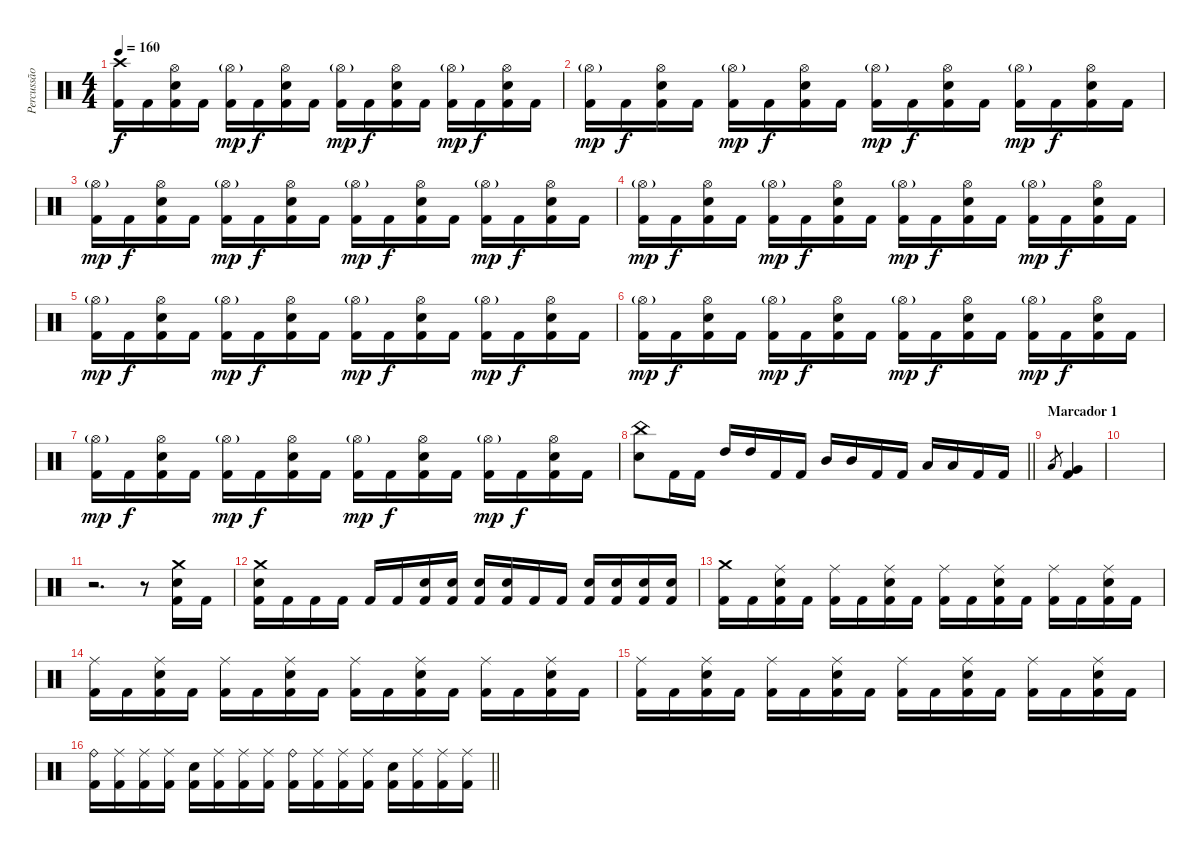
\track ("Percussão" "Percussão") {instrument percussion}
\staff {score}
\articulation defaults
\ts (4 4)
\tempo 160
\clef neutral
\ks c
("Crash high (hit)" "Kick (hit) 2").16{dy f} "Kick (hit) 2".16 ("Hi-Hat (open)" "Electric Snare (hit)" "Kick (hit) 2").16 "Kick (hit) 2".16 ("Hi-Hat (open)"{g} "Kick (hit) 2").16{dy mp} "Kick (hit) 2".16{dy f} ("Hi-Hat (open)" "Electric Snare (hit)" "Kick (hit) 2").16 "Kick (hit) 2".16 ("Hi-Hat (open)"{g} "Kick (hit) 2").16{dy mp} "Kick (hit) 2".16{dy f} ("Hi-Hat (open)" "Electric Snare (hit)" "Kick (hit) 2").16 "Kick (hit) 2".16 ("Hi-Hat (open)"{g} "Kick (hit) 2").16{dy mp} "Kick (hit) 2".16{dy f} ("Hi-Hat (open)" "Electric Snare (hit)" "Kick (hit) 2").16 "Kick (hit) 2".16 |
("Hi-Hat (open)"{g} "Kick (hit) 2").16{dy mp} "Kick (hit) 2".16{dy f} ("Hi-Hat (open)" "Electric Snare (hit)" "Kick (hit) 2").16 "Kick (hit) 2".16 ("Hi-Hat (open)"{g} "Kick (hit) 2").16{dy mp} "Kick (hit) 2".16{dy f} ("Hi-Hat (open)" "Electric Snare (hit)" "Kick (hit) 2").16 "Kick (hit) 2".16 ("Hi-Hat (open)"{g} "Kick (hit) 2").16{dy mp} "Kick (hit) 2".16{dy f} ("Hi-Hat (open)" "Electric Snare (hit)" "Kick (hit) 2").16 "Kick (hit) 2".16 ("Hi-Hat (open)"{g} "Kick (hit) 2").16{dy mp} "Kick (hit) 2".16{dy f} ("Hi-Hat (open)" "Electric Snare (hit)" "Kick (hit) 2").16 "Kick (hit) 2".16 |
("Hi-Hat (open)"{g} "Kick (hit) 2").16{dy mp} "Kick (hit) 2".16{dy f} ("Hi-Hat (open)" "Electric Snare (hit)" "Kick (hit) 2").16 "Kick (hit) 2".16 ("Hi-Hat (open)"{g} "Kick (hit) 2").16{dy mp} "Kick (hit) 2".16{dy f} ("Hi-Hat (open)" "Electric Snare (hit)" "Kick (hit) 2").16 "Kick (hit) 2".16 ("Hi-Hat (open)"{g} "Kick (hit) 2").16{dy mp} "Kick (hit) 2".16{dy f} ("Hi-Hat (open)" "Electric Snare (hit)" "Kick (hit) 2").16 "Kick (hit) 2".16 ("Hi-Hat (open)"{g} "Kick (hit) 2").16{dy mp} "Kick (hit) 2".16{dy f} ("Hi-Hat (open)" "Electric Snare (hit)" "Kick (hit) 2").16 "Kick (hit) 2".16 |
("Hi-Hat (open)"{g} "Kick (hit) 2").16{dy mp} "Kick (hit) 2".16{dy f} ("Hi-Hat (open)" "Electric Snare (hit)" "Kick (hit) 2").16 "Kick (hit) 2".16 ("Hi-Hat (open)"{g} "Kick (hit) 2").16{dy mp} "Kick (hit) 2".16{dy f} ("Hi-Hat (open)" "Electric Snare (hit)" "Kick (hit) 2").16 "Kick (hit) 2".16 ("Hi-Hat (open)"{g} "Kick (hit) 2").16{dy mp} "Kick (hit) 2".16{dy f} ("Hi-Hat (open)" "Electric Snare (hit)" "Kick (hit) 2").16 "Kick (hit) 2".16 ("Hi-Hat (open)"{g} "Kick (hit) 2").16{dy mp} "Kick (hit) 2".16{dy f} ("Hi-Hat (open)" "Electric Snare (hit)" "Kick (hit) 2").16 "Kick (hit) 2".16 |
("Hi-Hat (open)"{g} "Kick (hit) 2").16{dy mp} "Kick (hit) 2".16{dy f} ("Hi-Hat (open)" "Electric Snare (hit)" "Kick (hit) 2").16 "Kick (hit) 2".16 ("Hi-Hat (open)"{g} "Kick (hit) 2").16{dy mp} "Kick (hit) 2".16{dy f} ("Hi-Hat (open)" "Electric Snare (hit)" "Kick (hit) 2").16 "Kick (hit) 2".16 ("Hi-Hat (open)"{g} "Kick (hit) 2").16{dy mp} "Kick (hit) 2".16{dy f} ("Hi-Hat (open)" "Electric Snare (hit)" "Kick (hit) 2").16 "Kick (hit) 2".16 ("Hi-Hat (open)"{g} "Kick (hit) 2").16{dy mp} "Kick (hit) 2".16{dy f} ("Hi-Hat (open)" "Electric Snare (hit)" "Kick (hit) 2").16 "Kick (hit) 2".16 |
("Hi-Hat (open)"{g} "Kick (hit) 2").16{dy mp} "Kick (hit) 2".16{dy f} ("Hi-Hat (open)" "Electric Snare (hit)" "Kick (hit) 2").16 "Kick (hit) 2".16 ("Hi-Hat (open)"{g} "Kick (hit) 2").16{dy mp} "Kick (hit) 2".16{dy f} ("Hi-Hat (open)" "Electric Snare (hit)" "Kick (hit) 2").16 "Kick (hit) 2".16 ("Hi-Hat (open)"{g} "Kick (hit) 2").16{dy mp} "Kick (hit) 2".16{dy f} ("Hi-Hat (open)" "Electric Snare (hit)" "Kick (hit) 2").16 "Kick (hit) 2".16 ("Hi-Hat (open)"{g} "Kick (hit) 2").16{dy mp} "Kick (hit) 2".16{dy f} ("Hi-Hat (open)" "Electric Snare (hit)" "Kick (hit) 2").16 "Kick (hit) 2".16 |
("Hi-Hat (open)"{g} "Kick (hit) 2").16{dy mp} "Kick (hit) 2".16{dy f} ("Hi-Hat (open)" "Electric Snare (hit)" "Kick (hit) 2").16 "Kick (hit) 2".16 ("Hi-Hat (open)"{g} "Kick (hit) 2").16{dy mp} "Kick (hit) 2".16{dy f} ("Hi-Hat (open)" "Electric Snare (hit)" "Kick (hit) 2").16 "Kick (hit) 2".16 ("Hi-Hat (open)"{g} "Kick (hit) 2").16{dy mp} "Kick (hit) 2".16{dy f} ("Hi-Hat (open)" "Electric Snare (hit)" "Kick (hit) 2").16 "Kick (hit) 2".16 ("Hi-Hat (open)"{g} "Kick (hit) 2").16{dy mp} "Kick (hit) 2".16{dy f} ("Hi-Hat (open)" "Electric Snare (hit)" "Kick (hit) 2").16 "Kick (hit) 2".16 |
\barLineRight lightlight
("China (hit)" "Electric Snare (hit)").8 "Kick (hit) 2".16 "Kick (hit) 2".16 "High Tom (hit)".16 "High Tom (hit)".16 "Kick (hit) 2".16 "Kick (hit) 2".16 "Mid Tom (hit)".16 "Mid Tom (hit)".16 "Kick (hit) 2".16 "Kick (hit) 2".16 "Low Tom (hit)".16 "Low Tom (hit)".16 "Kick (hit) 2".16 "Kick (hit) 2".16 |
\section ("" "Marcador 1")
"Low Floor Tom (hit)".8{gr} ("Very Low Tom (hit)" "Kick (hit) 2").4 |
|
r.2{d} r.8 ("Crash medium (hit)" "Electric Snare (hit)" "Kick (hit) 2").16 "Kick (hit) 2".16 |
("Crash medium (hit)" "Electric Snare (hit)" "Kick (hit) 2").16 "Kick (hit) 2".16 "Kick (hit) 2".16 "Kick (hit) 2".16 "Kick (hit) 2".16 "Kick (hit) 2".16 ("Electric Snare (hit)" "Kick (hit) 2").16 ("Electric Snare (hit)" "Kick (hit) 2").16 ("Electric Snare (hit)" "Kick (hit) 2").16 ("Electric Snare (hit)" "Kick (hit) 2").16 "Kick (hit) 2".16 "Kick (hit) 2".16 ("Electric Snare (hit)" "Kick (hit) 2").16 ("Electric Snare (hit)" "Kick (hit) 2").16 ("Electric Snare (hit)" "Kick (hit) 2").16 ("Electric Snare (hit)" "Kick (hit) 2").16 |
("Crash medium (hit)" "Kick (hit) 2").16 "Kick (hit) 2".16 ("Ride (middle)" "Electric Snare (hit)" "Kick (hit) 2").16 "Kick (hit) 2".16 ("Ride (middle)" "Kick (hit) 2").16 "Kick (hit) 2".16 ("Ride (middle)" "Electric Snare (hit)" "Kick (hit) 2").16 "Kick (hit) 2".16 ("Ride (middle)" "Kick (hit) 2").16 "Kick (hit) 2".16 ("Ride (middle)" "Electric Snare (hit)" "Kick (hit) 2").16 "Kick (hit) 2".16 ("Ride (middle)" "Kick (hit) 2").16 "Kick (hit) 2".16 ("Ride (middle)" "Electric Snare (hit)" "Kick (hit) 2").16 "Kick (hit) 2".16 |
("Ride (middle)" "Kick (hit) 2").16 "Kick (hit) 2".16 ("Ride (middle)" "Electric Snare (hit)" "Kick (hit) 2").16 "Kick (hit) 2".16 ("Ride (middle)" "Kick (hit) 2").16 "Kick (hit) 2".16 ("Ride (middle)" "Electric Snare (hit)" "Kick (hit) 2").16 "Kick (hit) 2".16 ("Ride (middle)" "Kick (hit) 2").16 "Kick (hit) 2".16 ("Ride (middle)" "Electric Snare (hit)" "Kick (hit) 2").16 "Kick (hit) 2".16 ("Ride (middle)" "Kick (hit) 2").16 "Kick (hit) 2".16 ("Ride (middle)" "Electric Snare (hit)" "Kick (hit) 2").16 "Kick (hit) 2".16 |
("Ride (middle)" "Kick (hit) 2").16 "Kick (hit) 2".16 ("Ride (middle)" "Electric Snare (hit)" "Kick (hit) 2").16 "Kick (hit) 2".16 ("Ride (middle)" "Kick (hit) 2").16 "Kick (hit) 2".16 ("Ride (middle)" "Electric Snare (hit)" "Kick (hit) 2").16 "Kick (hit) 2".16 ("Ride (middle)" "Kick (hit) 2").16 "Kick (hit) 2".16 ("Ride (middle)" "Electric Snare (hit)" "Kick (hit) 2").16 "Kick (hit) 2".16 ("Ride (middle)" "Kick (hit) 2").16 "Kick (hit) 2".16 ("Ride (middle)" "Electric Snare (hit)" "Kick (hit) 2").16 "Kick (hit) 2".16 |
\barLineRight lightlight
("Ride (bell)" "Kick (hit) 2").16 ("Ride (middle)" "Kick (hit) 2").16 ("Ride (middle)" "Kick (hit) 2").16 ("Ride (middle)" "Kick (hit) 2").16 ("Electric Snare (hit)" "Kick (hit) 2").16 ("Ride (middle)" "Kick (hit) 2").16 ("Ride (middle)" "Kick (hit) 2").16 ("Ride (middle)" "Kick (hit) 2").16 ("Ride (bell)" "Kick (hit) 2").16 ("Ride (middle)" "Kick (hit) 2").16 ("Ride (middle)" "Kick (hit) 2").16 ("Ride (middle)" "Kick (hit) 2").16 ("Electric Snare (hit)" "Kick (hit) 2").16 ("Ride (middle)" "Kick (hit) 2").16 ("Ride (middle)" "Kick (hit) 2").16 ("Ride (middle)" "Kick (hit) 2").16
